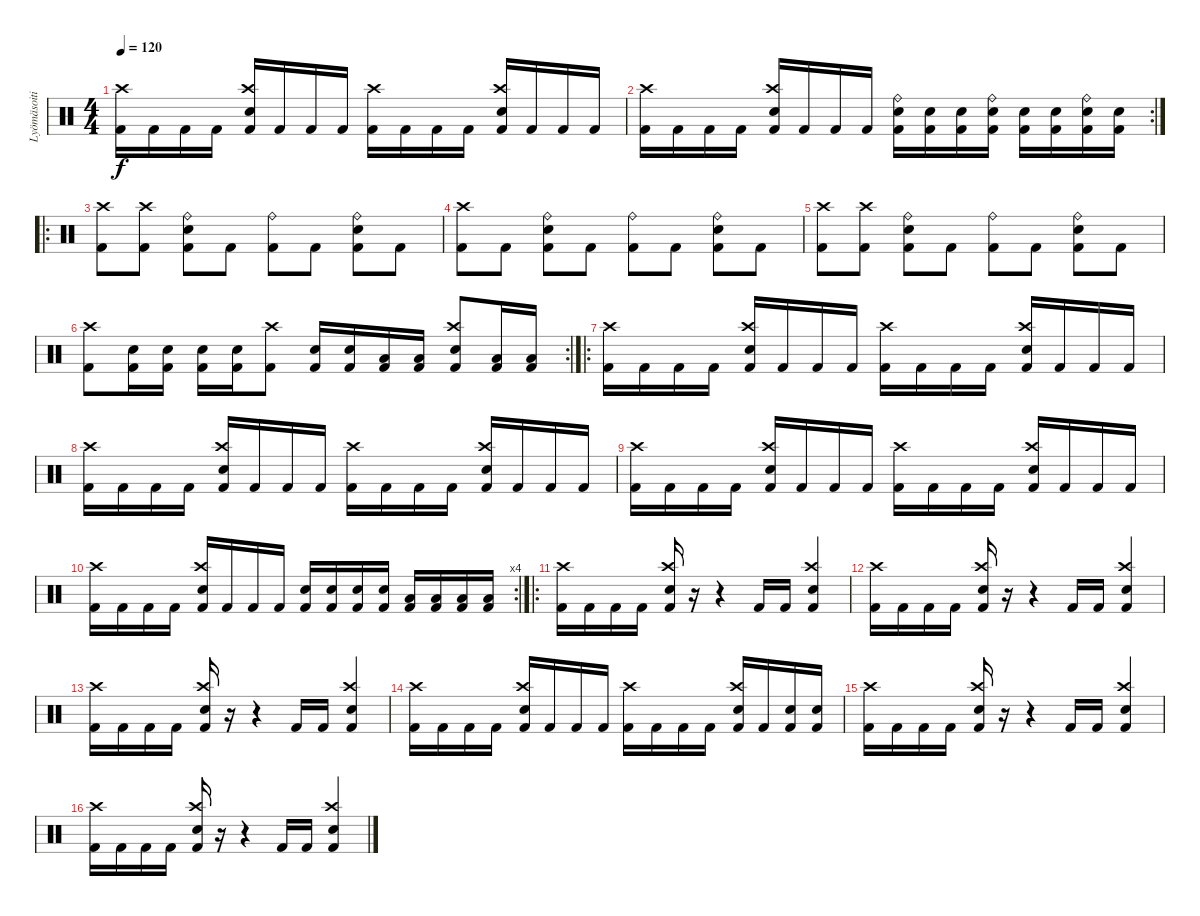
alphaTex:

\track ("Lyömäsoitin" "Lyömäsoiti") {instrument percussion}
\staff {score}
\articulation defaults
\ts (4 4)
\tempo 120
\clef neutral
\ks c
("Kick (hit) 2" "Crash high (hit)").16{dy f} "Kick (hit) 2".16 "Kick (hit) 2".16 "Kick (hit) 2".16 ("Kick (hit) 2" "Crash high (hit)" "Electric Snare (hit)").16 "Kick (hit) 2".16 "Kick (hit) 2".16 "Kick (hit) 2".16 ("Kick (hit) 2" "Crash high (hit)").16 "Kick (hit) 2".16 "Kick (hit) 2".16 "Kick (hit) 2".16 ("Kick (hit) 2" "Crash high (hit)" "Electric Snare (hit)").16 "Kick (hit) 2".16 "Kick (hit) 2".16 "Kick (hit) 2".16 |
\rc 2
("Kick (hit) 2" "Crash high (hit)").16 "Kick (hit) 2".16 "Kick (hit) 2".16 "Kick (hit) 2".16 ("Kick (hit) 2" "Crash high (hit)" "Electric Snare (hit)").16 "Kick (hit) 2".16 "Kick (hit) 2".16 "Kick (hit) 2".16 ("Kick (hit) 2" "Electric Snare (hit)" "Ride (bell)").16 ("Kick (hit) 2" "Electric Snare (hit)").16 ("Kick (hit) 2" "Electric Snare (hit)").16 ("Kick (hit) 2" "Electric Snare (hit)" "Ride (bell)").16 ("Kick (hit) 2" "Electric Snare (hit)").16 ("Kick (hit) 2" "Electric Snare (hit)").16 ("Kick (hit) 2" "Electric Snare (hit)" "Ride (bell)").16 ("Kick (hit) 2" "Electric Snare (hit)").16 |
\ro
("Kick (hit) 2" "Crash high (hit)").8 ("Kick (hit) 2" "Crash high (hit)").8 ("Kick (hit) 2" "Ride (bell)" "Electric Snare (hit)").8 "Kick (hit) 2".8 ("Kick (hit) 2" "Ride (bell)").8 "Kick (hit) 2".8 ("Kick (hit) 2" "Ride (bell)" "Electric Snare (hit)").8 "Kick (hit) 2".8 |
("Kick (hit) 2" "Crash high (hit)").8 "Kick (hit) 2".8 ("Kick (hit) 2" "Ride (bell)" "Electric Snare (hit)").8 "Kick (hit) 2".8 ("Kick (hit) 2" "Ride (bell)").8 "Kick (hit) 2".8 ("Kick (hit) 2" "Ride (bell)" "Electric Snare (hit)").8 "Kick (hit) 2".8 |
("Kick (hit) 2" "Crash high (hit)").8 ("Kick (hit) 2" "Crash high (hit)").8 ("Kick (hit) 2" "Ride (bell)" "Electric Snare (hit)").8 "Kick (hit) 2".8 ("Kick (hit) 2" "Ride (bell)").8 "Kick (hit) 2".8 ("Kick (hit) 2" "Ride (bell)" "Electric Snare (hit)").8 "Kick (hit) 2".8 |
\rc 2
("Kick (hit) 2" "Crash high (hit)").8 ("Kick (hit) 2" "Electric Snare (hit)").16 ("Kick (hit) 2" "Electric Snare (hit)").16 ("Kick (hit) 2" "Electric Snare (hit)").16 ("Kick (hit) 2" "Electric Snare (hit)").16 ("Kick (hit) 2" "Crash high (hit)").8 ("Kick (hit) 2" "Electric Snare (hit)").16 ("Kick (hit) 2" "Electric Snare (hit)").16 ("Kick (hit) 2" "Low Tom (hit)").16 ("Kick (hit) 2" "Low Tom (hit)").16 ("Kick (hit) 2" "Crash high (hit)" "Electric Snare (hit)").8 ("Kick (hit) 2" "Low Tom (hit)").16 ("Kick (hit) 2" "Low Tom (hit)").16 |
\ro
("Kick (hit) 2" "Crash high (hit)").16 "Kick (hit) 2".16 "Kick (hit) 2".16 "Kick (hit) 2".16 ("Kick (hit) 2" "Crash high (hit)" "Electric Snare (hit)").16 "Kick (hit) 2".16 "Kick (hit) 2".16 "Kick (hit) 2".16 ("Kick (hit) 2" "Crash high (hit)").16 "Kick (hit) 2".16 "Kick (hit) 2".16 "Kick (hit) 2".16 ("Kick (hit) 2" "Crash high (hit)" "Electric Snare (hit)").16 "Kick (hit) 2".16 "Kick (hit) 2".16 "Kick (hit) 2".16 |
("Kick (hit) 2" "Crash high (hit)").16 "Kick (hit) 2".16 "Kick (hit) 2".16 "Kick (hit) 2".16 ("Kick (hit) 2" "Crash high (hit)" "Electric Snare (hit)").16 "Kick (hit) 2".16 "Kick (hit) 2".16 "Kick (hit) 2".16 ("Kick (hit) 2" "Crash high (hit)").16 "Kick (hit) 2".16 "Kick (hit) 2".16 "Kick (hit) 2".16 ("Kick (hit) 2" "Crash high (hit)" "Electric Snare (hit)").16 "Kick (hit) 2".16 "Kick (hit) 2".16 "Kick (hit) 2".16 |
("Kick (hit) 2" "Crash high (hit)").16 "Kick (hit) 2".16 "Kick (hit) 2".16 "Kick (hit) 2".16 ("Kick (hit) 2" "Crash high (hit)" "Electric Snare (hit)").16 "Kick (hit) 2".16 "Kick (hit) 2".16 "Kick (hit) 2".16 ("Kick (hit) 2" "Crash high (hit)").16 "Kick (hit) 2".16 "Kick (hit) 2".16 "Kick (hit) 2".16 ("Kick (hit) 2" "Crash high (hit)" "Electric Snare (hit)").16 "Kick (hit) 2".16 "Kick (hit) 2".16 "Kick (hit) 2".16 |
\rc 4
("Kick (hit) 2" "Crash high (hit)").16 "Kick (hit) 2".16 "Kick (hit) 2".16 "Kick (hit) 2".16 ("Kick (hit) 2" "Crash high (hit)" "Electric Snare (hit)").16 "Kick (hit) 2".16 "Kick (hit) 2".16 "Kick (hit) 2".16 ("Kick (hit) 2" "Electric Snare (hit)").16 ("Kick (hit) 2" "Electric Snare (hit)").16 ("Kick (hit) 2" "Electric Snare (hit)").16 ("Kick (hit) 2" "Electric Snare (hit)").16 ("Kick (hit) 2" "Low Tom (hit)").16 ("Kick (hit) 2" "Low Tom (hit)").16 ("Kick (hit) 2" "Low Tom (hit)").16 ("Kick (hit) 2" "Low Tom (hit)").16 |
\ro
("Kick (hit) 2" "Crash high (hit)").16 "Kick (hit) 2".16 "Kick (hit) 2".16 "Kick (hit) 2".16 ("Kick (hit) 2" "Crash high (hit)" "Electric Snare (hit)").16 r.16 r.4 "Kick (hit) 2".16 "Kick (hit) 2".16 ("Kick (hit) 2" "Crash high (hit)" "Electric Snare (hit)").4 |
("Kick (hit) 2" "Crash high (hit)").16 "Kick (hit) 2".16 "Kick (hit) 2".16 "Kick (hit) 2".16 ("Kick (hit) 2" "Crash high (hit)" "Electric Snare (hit)").16 r.16 r.4 "Kick (hit) 2".16 "Kick (hit) 2".16 ("Kick (hit) 2" "Crash high (hit)" "Electric Snare (hit)").4 |
("Kick (hit) 2" "Crash high (hit)").16 "Kick (hit) 2".16 "Kick (hit) 2".16 "Kick (hit) 2".16 ("Kick (hit) 2" "Crash high (hit)" "Electric Snare (hit)").16 r.16 r.4 "Kick (hit) 2".16 "Kick (hit) 2".16 ("Kick (hit) 2" "Crash high (hit)" "Electric Snare (hit)").4 |
("Kick (hit) 2" "Crash high (hit)").16 "Kick (hit) 2".16 "Kick (hit) 2".16 "Kick (hit) 2".16 ("Kick (hit) 2" "Crash high (hit)" "Electric Snare (hit)").16 "Kick (hit) 2".16 "Kick (hit) 2".16 "Kick (hit) 2".16 ("Kick (hit) 2" "Crash high (hit)").16 "Kick (hit) 2".16 "Kick (hit) 2".16 "Kick (hit) 2".16 ("Kick (hit) 2" "Crash high (hit)" "Electric Snare (hit)").16 "Kick (hit) 2".16 ("Kick (hit) 2" "Electric Snare (hit)").16 ("Kick (hit) 2" "Electric Snare (hit)").16 |
("Kick (hit) 2" "Crash high (hit)").16 "Kick (hit) 2".16 "Kick (hit) 2".16 "Kick (hit) 2".16 ("Kick (hit) 2" "Crash high (hit)" "Electric Snare (hit)").16 r.16 r.4 "Kick (hit) 2".16 "Kick (hit) 2".16 ("Kick (hit) 2" "Crash high (hit)" "Electric Snare (hit)").4 |
("Kick (hit) 2" "Crash high (hit)").16 "Kick (hit) 2".16 "Kick (hit) 2".16 "Kick (hit) 2".16 ("Kick (hit) 2" "Crash high (hit)" "Electric Snare (hit)").16 r.16 r.4 "Kick (hit) 2".16 "Kick (hit) 2".16 ("Kick (hit) 2" "Crash high (hit)" "Electric Snare (hit)").4
